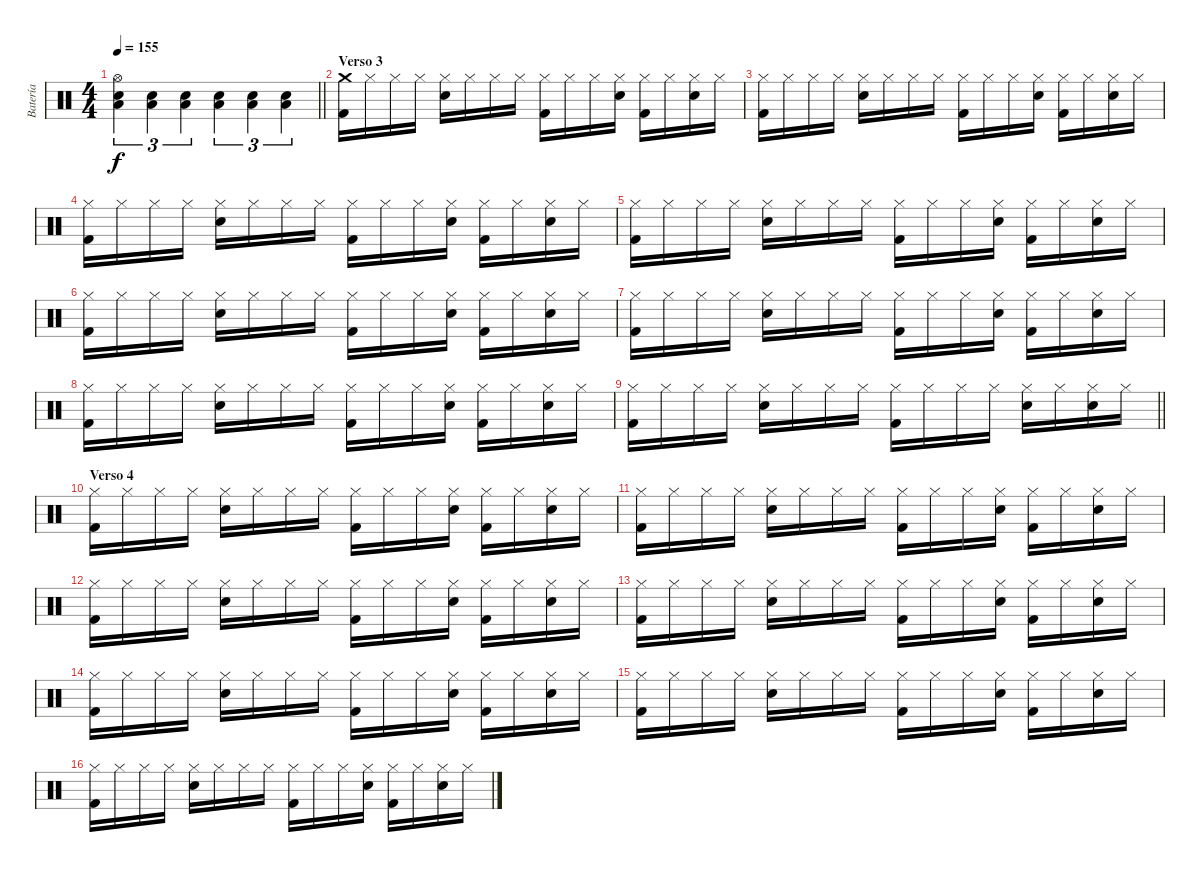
\track ("Batería" "Batería") {instrument percussion}
\staff {score}
\articulation defaults
\ts (4 4)
\tempo 155
\clef neutral
\barLineRight lightlight
\ks c
("Hi-Hat (open)" "Snare (hit) 2" "Low Floor Tom (hit)").4{tu (3 2) dy f} ("Snare (hit) 2" "Low Floor Tom (hit)").4{tu (3 2)} ("Snare (hit) 2" "Low Floor Tom (hit)").4{tu (3 2)} ("Snare (hit) 2" "Low Floor Tom (hit)").4{tu (3 2)} ("Snare (hit) 2" "Low Floor Tom (hit)").4{tu (3 2)} ("Snare (hit) 2" "Low Floor Tom (hit)").4{tu (3 2)} |
\section ("" "Verso 3")
("Crash medium (hit)" "Kick (hit) 2").16 "Hi-Hat (closed)".16 "Hi-Hat (closed)".16 "Hi-Hat (closed)".16 ("Hi-Hat (closed)" "Snare (hit) 2").16 "Hi-Hat (closed)".16 "Hi-Hat (closed)".16 "Hi-Hat (closed)".16 ("Hi-Hat (closed)" "Kick (hit) 2").16 "Hi-Hat (closed)".16 "Hi-Hat (closed)".16 ("Hi-Hat (closed)" "Snare (hit) 2").16 ("Hi-Hat (closed)" "Kick (hit) 2").16 "Hi-Hat (closed)".16 ("Hi-Hat (closed)" "Snare (hit) 2").16 "Hi-Hat (closed)".16 |
("Hi-Hat (closed)" "Kick (hit) 2").16 "Hi-Hat (closed)".16 "Hi-Hat (closed)".16 "Hi-Hat (closed)".16 ("Hi-Hat (closed)" "Snare (hit) 2").16 "Hi-Hat (closed)".16 "Hi-Hat (closed)".16 "Hi-Hat (closed)".16 ("Hi-Hat (closed)" "Kick (hit) 2").16 "Hi-Hat (closed)".16 "Hi-Hat (closed)".16 ("Hi-Hat (closed)" "Snare (hit) 2").16 ("Hi-Hat (closed)" "Kick (hit) 2").16 "Hi-Hat (closed)".16 ("Hi-Hat (closed)" "Snare (hit) 2").16 "Hi-Hat (closed)".16 |
("Hi-Hat (closed)" "Kick (hit) 2").16 "Hi-Hat (closed)".16 "Hi-Hat (closed)".16 "Hi-Hat (closed)".16 ("Hi-Hat (closed)" "Snare (hit) 2").16 "Hi-Hat (closed)".16 "Hi-Hat (closed)".16 "Hi-Hat (closed)".16 ("Hi-Hat (closed)" "Kick (hit) 2").16 "Hi-Hat (closed)".16 "Hi-Hat (closed)".16 ("Hi-Hat (closed)" "Snare (hit) 2").16 ("Hi-Hat (closed)" "Kick (hit) 2").16 "Hi-Hat (closed)".16 ("Hi-Hat (closed)" "Snare (hit) 2").16 "Hi-Hat (closed)".16 |
("Hi-Hat (closed)" "Kick (hit) 2").16 "Hi-Hat (closed)".16 "Hi-Hat (closed)".16 "Hi-Hat (closed)".16 ("Hi-Hat (closed)" "Snare (hit) 2").16 "Hi-Hat (closed)".16 "Hi-Hat (closed)".16 "Hi-Hat (closed)".16 ("Hi-Hat (closed)" "Kick (hit) 2").16 "Hi-Hat (closed)".16 "Hi-Hat (closed)".16 ("Hi-Hat (closed)" "Snare (hit) 2").16 ("Hi-Hat (closed)" "Kick (hit) 2").16 "Hi-Hat (closed)".16 ("Hi-Hat (closed)" "Snare (hit) 2").16 "Hi-Hat (closed)".16 |
("Hi-Hat (closed)" "Kick (hit) 2").16 "Hi-Hat (closed)".16 "Hi-Hat (closed)".16 "Hi-Hat (closed)".16 ("Hi-Hat (closed)" "Snare (hit) 2").16 "Hi-Hat (closed)".16 "Hi-Hat (closed)".16 "Hi-Hat (closed)".16 ("Hi-Hat (closed)" "Kick (hit) 2").16 "Hi-Hat (closed)".16 "Hi-Hat (closed)".16 ("Hi-Hat (closed)" "Snare (hit) 2").16 ("Hi-Hat (closed)" "Kick (hit) 2").16 "Hi-Hat (closed)".16 ("Hi-Hat (closed)" "Snare (hit) 2").16 "Hi-Hat (closed)".16 |
("Hi-Hat (closed)" "Kick (hit) 2").16 "Hi-Hat (closed)".16 "Hi-Hat (closed)".16 "Hi-Hat (closed)".16 ("Hi-Hat (closed)" "Snare (hit) 2").16 "Hi-Hat (closed)".16 "Hi-Hat (closed)".16 "Hi-Hat (closed)".16 ("Hi-Hat (closed)" "Kick (hit) 2").16 "Hi-Hat (closed)".16 "Hi-Hat (closed)".16 ("Hi-Hat (closed)" "Snare (hit) 2").16 ("Hi-Hat (closed)" "Kick (hit) 2").16 "Hi-Hat (closed)".16 ("Hi-Hat (closed)" "Snare (hit) 2").16 "Hi-Hat (closed)".16 |
("Hi-Hat (closed)" "Kick (hit) 2").16 "Hi-Hat (closed)".16 "Hi-Hat (closed)".16 "Hi-Hat (closed)".16 ("Hi-Hat (closed)" "Snare (hit) 2").16 "Hi-Hat (closed)".16 "Hi-Hat (closed)".16 "Hi-Hat (closed)".16 ("Hi-Hat (closed)" "Kick (hit) 2").16 "Hi-Hat (closed)".16 "Hi-Hat (closed)".16 ("Hi-Hat (closed)" "Snare (hit) 2").16 ("Hi-Hat (closed)" "Kick (hit) 2").16 "Hi-Hat (closed)".16 ("Hi-Hat (closed)" "Snare (hit) 2").16 "Hi-Hat (closed)".16 |
\barLineRight lightlight
("Hi-Hat (closed)" "Kick (hit) 2").16 "Hi-Hat (closed)".16 "Hi-Hat (closed)".16 "Hi-Hat (closed)".16 ("Hi-Hat (closed)" "Snare (hit) 2").16 "Hi-Hat (closed)".16 "Hi-Hat (closed)".16 "Hi-Hat (closed)".16 ("Hi-Hat (closed)" "Kick (hit) 2").16 "Hi-Hat (closed)".16 "Hi-Hat (closed)".16 "Hi-Hat (closed)".16 ("Hi-Hat (closed)" "Snare (hit) 2").16 "Hi-Hat (closed)".16 ("Hi-Hat (closed)" "Snare (hit) 2").16 "Hi-Hat (closed)".16 |
\section ("" "Verso 4")
("Hi-Hat (closed)" "Kick (hit) 2").16 "Hi-Hat (closed)".16 "Hi-Hat (closed)".16 "Hi-Hat (closed)".16 ("Hi-Hat (closed)" "Snare (hit) 2").16 "Hi-Hat (closed)".16 "Hi-Hat (closed)".16 "Hi-Hat (closed)".16 ("Hi-Hat (closed)" "Kick (hit) 2").16 "Hi-Hat (closed)".16 "Hi-Hat (closed)".16 ("Hi-Hat (closed)" "Snare (hit) 2").16 ("Hi-Hat (closed)" "Kick (hit) 2").16 "Hi-Hat (closed)".16 ("Hi-Hat (closed)" "Snare (hit) 2").16 "Hi-Hat (closed)".16 |
("Hi-Hat (closed)" "Kick (hit) 2").16 "Hi-Hat (closed)".16 "Hi-Hat (closed)".16 "Hi-Hat (closed)".16 ("Hi-Hat (closed)" "Snare (hit) 2").16 "Hi-Hat (closed)".16 "Hi-Hat (closed)".16 "Hi-Hat (closed)".16 ("Hi-Hat (closed)" "Kick (hit) 2").16 "Hi-Hat (closed)".16 "Hi-Hat (closed)".16 ("Hi-Hat (closed)" "Snare (hit) 2").16 ("Hi-Hat (closed)" "Kick (hit) 2").16 "Hi-Hat (closed)".16 ("Hi-Hat (closed)" "Snare (hit) 2").16 "Hi-Hat (closed)".16 |
("Hi-Hat (closed)" "Kick (hit) 2").16 "Hi-Hat (closed)".16 "Hi-Hat (closed)".16 "Hi-Hat (closed)".16 ("Hi-Hat (closed)" "Snare (hit) 2").16 "Hi-Hat (closed)".16 "Hi-Hat (closed)".16 "Hi-Hat (closed)".16 ("Hi-Hat (closed)" "Kick (hit) 2").16 "Hi-Hat (closed)".16 "Hi-Hat (closed)".16 ("Hi-Hat (closed)" "Snare (hit) 2").16 ("Hi-Hat (closed)" "Kick (hit) 2").16 "Hi-Hat (closed)".16 ("Hi-Hat (closed)" "Snare (hit) 2").16 "Hi-Hat (closed)".16 |
("Hi-Hat (closed)" "Kick (hit) 2").16 "Hi-Hat (closed)".16 "Hi-Hat (closed)".16 "Hi-Hat (closed)".16 ("Hi-Hat (closed)" "Snare (hit) 2").16 "Hi-Hat (closed)".16 "Hi-Hat (closed)".16 "Hi-Hat (closed)".16 ("Hi-Hat (closed)" "Kick (hit) 2").16 "Hi-Hat (closed)".16 "Hi-Hat (closed)".16 ("Hi-Hat (closed)" "Snare (hit) 2").16 ("Hi-Hat (closed)" "Kick (hit) 2").16 "Hi-Hat (closed)".16 ("Hi-Hat (closed)" "Snare (hit) 2").16 "Hi-Hat (closed)".16 |
("Hi-Hat (closed)" "Kick (hit) 2").16 "Hi-Hat (closed)".16 "Hi-Hat (closed)".16 "Hi-Hat (closed)".16 ("Hi-Hat (closed)" "Snare (hit) 2").16 "Hi-Hat (closed)".16 "Hi-Hat (closed)".16 "Hi-Hat (closed)".16 ("Hi-Hat (closed)" "Kick (hit) 2").16 "Hi-Hat (closed)".16 "Hi-Hat (closed)".16 ("Hi-Hat (closed)" "Snare (hit) 2").16 ("Hi-Hat (closed)" "Kick (hit) 2").16 "Hi-Hat (closed)".16 ("Hi-Hat (closed)" "Snare (hit) 2").16 "Hi-Hat (closed)".16 |
("Hi-Hat (closed)" "Kick (hit) 2").16 "Hi-Hat (closed)".16 "Hi-Hat (closed)".16 "Hi-Hat (closed)".16 ("Hi-Hat (closed)" "Snare (hit) 2").16 "Hi-Hat (closed)".16 "Hi-Hat (closed)".16 "Hi-Hat (closed)".16 ("Hi-Hat (closed)" "Kick (hit) 2").16 "Hi-Hat (closed)".16 "Hi-Hat (closed)".16 ("Hi-Hat (closed)" "Snare (hit) 2").16 ("Hi-Hat (closed)" "Kick (hit) 2").16 "Hi-Hat (closed)".16 ("Hi-Hat (closed)" "Snare (hit) 2").16 "Hi-Hat (closed)".16 |
("Hi-Hat (closed)" "Kick (hit) 2").16 "Hi-Hat (closed)".16 "Hi-Hat (closed)".16 "Hi-Hat (closed)".16 ("Hi-Hat (closed)" "Snare (hit) 2").16 "Hi-Hat (closed)".16 "Hi-Hat (closed)".16 "Hi-Hat (closed)".16 ("Hi-Hat (closed)" "Kick (hit) 2").16 "Hi-Hat (closed)".16 "Hi-Hat (closed)".16 ("Hi-Hat (closed)" "Snare (hit) 2").16 ("Hi-Hat (closed)" "Kick (hit) 2").16 "Hi-Hat (closed)".16 ("Hi-Hat (closed)" "Snare (hit) 2").16 "Hi-Hat (closed)".16
